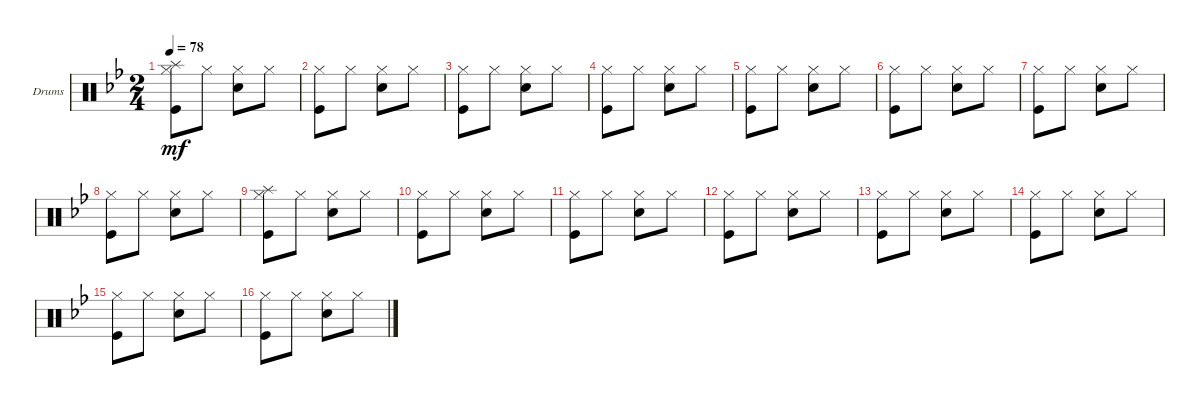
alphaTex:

\defaultSystemsLayout 4
\bracketExtendMode groupsimilarinstruments
\firstSystemTrackNameOrientation horizontal
\otherSystemsTrackNameOrientation horizontal
\track ("Катя" "Drums") {instrument percussion}
\staff {score}
\articulation defaults
\ts (2 4)
\tempo 78
\clef neutral
\ks gminor
("Kick (hit)" "Hi-Hat (closed)" "Splash (hit)").8{dy mf} "Hi-Hat (closed)".8 ("Hi-Hat (closed)" "Snare (hit) 2").8 "Hi-Hat (closed)".8 |
("Hi-Hat (closed)" "Kick (hit)").8 "Hi-Hat (closed)".8 ("Hi-Hat (closed)" "Snare (hit) 2").8 "Hi-Hat (closed)".8 |
("Kick (hit)" "Hi-Hat (closed)").8 "Hi-Hat (closed)".8 ("Hi-Hat (closed)" "Snare (hit) 2").8 "Hi-Hat (closed)".8 |
("Hi-Hat (closed)" "Kick (hit)").8 "Hi-Hat (closed)".8 ("Hi-Hat (closed)" "Snare (hit) 2").8 "Hi-Hat (closed)".8 |
("Kick (hit)" "Hi-Hat (closed)").8 "Hi-Hat (closed)".8 ("Hi-Hat (closed)" "Snare (hit) 2").8 "Hi-Hat (closed)".8 |
("Hi-Hat (closed)" "Kick (hit)").8 "Hi-Hat (closed)".8 ("Hi-Hat (closed)" "Snare (hit) 2").8 "Hi-Hat (closed)".8 |
("Kick (hit)" "Hi-Hat (closed)").8 "Hi-Hat (closed)".8 ("Hi-Hat (closed)" "Snare (hit) 2").8 "Hi-Hat (closed)".8 |
("Hi-Hat (closed)" "Kick (hit)").8 "Hi-Hat (closed)".8 ("Hi-Hat (closed)" "Snare (hit) 2").8 "Hi-Hat (closed)".8 |
("Kick (hit)" "Hi-Hat (closed)" "Splash (hit)").8 "Hi-Hat (closed)".8 ("Hi-Hat (closed)" "Snare (hit) 2").8 "Hi-Hat (closed)".8 |
("Hi-Hat (closed)" "Kick (hit)").8 "Hi-Hat (closed)".8 ("Hi-Hat (closed)" "Snare (hit) 2").8 "Hi-Hat (closed)".8 |
("Kick (hit)" "Hi-Hat (closed)").8 "Hi-Hat (closed)".8 ("Hi-Hat (closed)" "Snare (hit) 2").8 "Hi-Hat (closed)".8 |
("Hi-Hat (closed)" "Kick (hit)").8 "Hi-Hat (closed)".8 ("Hi-Hat (closed)" "Snare (hit) 2").8 "Hi-Hat (closed)".8 |
("Kick (hit)" "Hi-Hat (closed)").8 "Hi-Hat (closed)".8 ("Hi-Hat (closed)" "Snare (hit) 2").8 "Hi-Hat (closed)".8 |
("Hi-Hat (closed)" "Kick (hit)").8 "Hi-Hat (closed)".8 ("Hi-Hat (closed)" "Snare (hit) 2").8 "Hi-Hat (closed)".8 |
("Kick (hit)" "Hi-Hat (closed)").8 "Hi-Hat (closed)".8 ("Hi-Hat (closed)" "Snare (hit) 2").8 "Hi-Hat (closed)".8 |
("Hi-Hat (closed)" "Kick (hit)").8 "Hi-Hat (closed)".8 ("Hi-Hat (closed)" "Snare (hit) 2").8 "Hi-Hat (closed)".8
